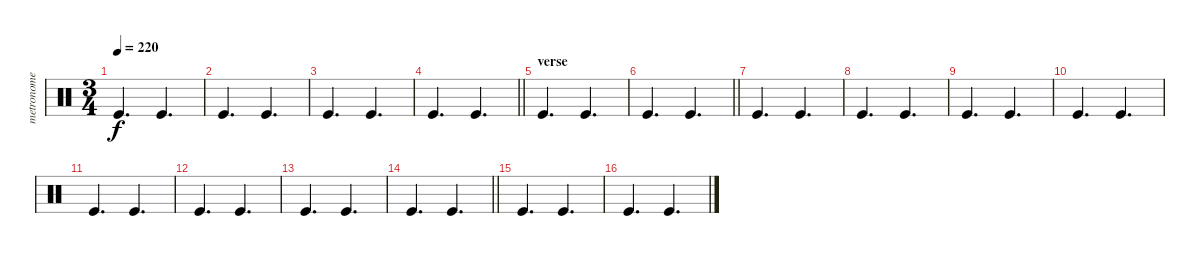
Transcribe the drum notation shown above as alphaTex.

\track ("metronome" "metronome") {instrument percussion}
\staff {score}
\articulation defaults
\ts (3 4)
\tempo 220
\clef neutral
\ks c "Kick (hit)".4{d dy f} "Kick (hit)".4{d}
|
"Kick (hit)".4{d} "Kick (hit)".4{d} |
"Kick (hit)".4{d} "Kick (hit)".4{d} |
\barLineRight lightlight "Kick (hit)".4{d} "Kick (hit)".4{d}
|
\section ("" "verse")
"Kick (hit)".4{d} "Kick (hit)".4{d} |
\barLineRight lightlight "Kick (hit)".4{d} "Kick (hit)".4{d}
|
"Kick (hit)".4{d} "Kick (hit)".4{d} |
"Kick (hit)".4{d} "Kick (hit)".4{d} |
"Kick (hit)".4{d} "Kick (hit)".4{d} |
"Kick (hit)".4{d} "Kick (hit)".4{d} |
"Kick (hit)".4{d} "Kick (hit)".4{d} |
"Kick (hit)".4{d} "Kick (hit)".4{d} |
"Kick (hit)".4{d} "Kick (hit)".4{d} |
\barLineRight lightlight "Kick (hit)".4{d} "Kick (hit)".4{d}
|
"Kick (hit)".4{d} "Kick (hit)".4{d} |
"Kick (hit)".4{d} "Kick (hit)".4{d}
